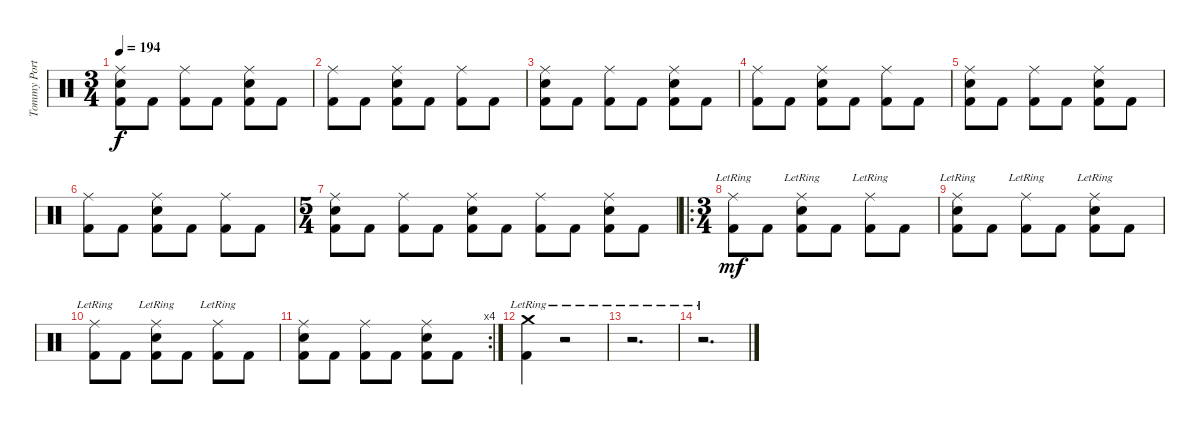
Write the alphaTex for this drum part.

\track ("Tommy Portino" "Tommy Port") {instrument percussion}
\staff {score}
\articulation defaults
\ts (3 4)
\tempo 194
\clef neutral
\ks c
("Ride (middle)" "Snare (hit) 2" "Kick (hit) 2").8{dy f} "Kick (hit) 2".8 ("Ride (middle)" "Kick (hit) 2").8 "Kick (hit) 2".8 ("Ride (middle)" "Snare (hit) 2" "Kick (hit) 2").8 "Kick (hit) 2".8 |
("Ride (middle)" "Kick (hit) 2").8 "Kick (hit) 2".8 ("Ride (middle)" "Snare (hit) 2" "Kick (hit) 2").8 "Kick (hit) 2".8 ("Ride (middle)" "Kick (hit) 2").8 "Kick (hit) 2".8 |
("Ride (middle)" "Snare (hit) 2" "Kick (hit) 2").8 "Kick (hit) 2".8 ("Ride (middle)" "Kick (hit) 2").8 "Kick (hit) 2".8 ("Ride (middle)" "Snare (hit) 2" "Kick (hit) 2").8 "Kick (hit) 2".8 |
("Ride (middle)" "Kick (hit) 2").8 "Kick (hit) 2".8 ("Ride (middle)" "Snare (hit) 2" "Kick (hit) 2").8 "Kick (hit) 2".8 ("Ride (middle)" "Kick (hit) 2").8 "Kick (hit) 2".8 |
("Ride (middle)" "Snare (hit) 2" "Kick (hit) 2").8 "Kick (hit) 2".8 ("Ride (middle)" "Kick (hit) 2").8 "Kick (hit) 2".8 ("Ride (middle)" "Snare (hit) 2" "Kick (hit) 2").8 "Kick (hit) 2".8 |
("Ride (middle)" "Kick (hit) 2").8 "Kick (hit) 2".8 ("Ride (middle)" "Snare (hit) 2" "Kick (hit) 2").8 "Kick (hit) 2".8 ("Ride (middle)" "Kick (hit) 2").8 "Kick (hit) 2".8 |
\ts (5 4)
("Ride (middle)" "Snare (hit) 2" "Kick (hit) 2").8 "Kick (hit) 2".8 ("Ride (middle)" "Kick (hit) 2").8 "Kick (hit) 2".8 ("Ride (middle)" "Snare (hit) 2" "Kick (hit) 2").8 "Kick (hit) 2".8 ("Ride (middle)" "Kick (hit) 2").8 "Kick (hit) 2".8 ("Ride (middle)" "Snare (hit) 2" "Kick (hit) 2").8 "Kick (hit) 2".8 |
\ro
\ts (3 4)
("Ride (middle)"{lr} "Kick (hit) 2").8{dy mf} "Kick (hit) 2".8 ("Ride (middle)"{lr} "Snare (hit) 2" "Kick (hit) 2").8 "Kick (hit) 2".8 ("Ride (middle)"{lr} "Kick (hit) 2").8 "Kick (hit) 2".8 |
("Ride (middle)"{lr} "Snare (hit) 2" "Kick (hit) 2").8 "Kick (hit) 2".8 ("Ride (middle)"{lr} "Kick (hit) 2").8 "Kick (hit) 2".8 ("Ride (middle)"{lr} "Snare (hit) 2" "Kick (hit) 2").8 "Kick (hit) 2".8 |
("Ride (middle)"{lr} "Kick (hit) 2").8 "Kick (hit) 2".8 ("Ride (middle)"{lr} "Snare (hit) 2" "Kick (hit) 2").8 "Kick (hit) 2".8 ("Ride (middle)"{lr} "Kick (hit) 2").8 "Kick (hit) 2".8 |
\rc 4
("Ride (middle)" "Snare (hit) 2" "Kick (hit) 2").8 "Kick (hit) 2".8 ("Ride (middle)" "Kick (hit) 2").8 "Kick (hit) 2".8 ("Ride (middle)" "Snare (hit) 2" "Kick (hit) 2").8 "Kick (hit) 2".8 |
("Crash medium (hit)"{lr} "Kick (hit) 2").4 r.2 |
r.2{d} |
r.2{d}
